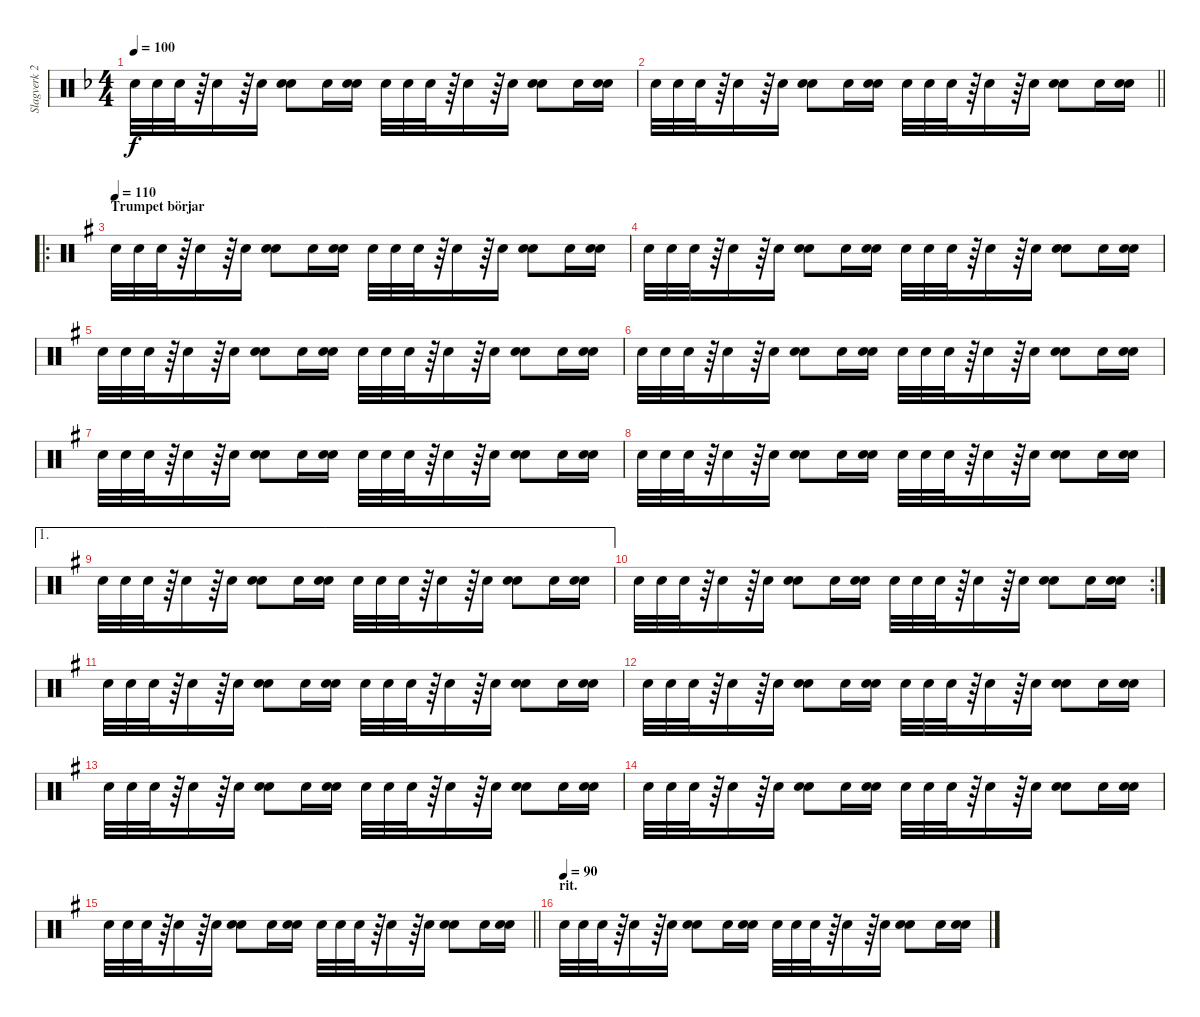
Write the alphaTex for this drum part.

\track ("Slagverk 2" "Slagverk 2") {instrument percussion}
\staff {score}
\articulation defaults
\ts (4 4)
\tempo 100
\clef neutral
\ks f "Snare (hit) 2".32{dy f} "Snare (hit) 2".32 "Snare (hit) 2".32
r.64 "Snare (hit) 2".16 r.64 "Snare (hit) 2".16 ("Snare (hit) 2" "Snare (hit) 2").8 "Snare (hit) 2".16 ("Snare (hit) 2" "Snare (hit) 2").16 "Snare (hit) 2".32 "Snare (hit) 2".32 "Snare (hit) 2".32 r.64 "Snare (hit) 2".16 r.64 "Snare (hit) 2".16 ("Snare (hit) 2" "Snare (hit) 2").8 "Snare (hit) 2".16 ("Snare (hit) 2" "Snare (hit) 2").16 |
\barLineRight lightlight "Snare (hit) 2".32 "Snare (hit) 2".32 "Snare (hit) 2".32
r.64 "Snare (hit) 2".16 r.64 "Snare (hit) 2".16 ("Snare (hit) 2" "Snare (hit) 2").8 "Snare (hit) 2".16 ("Snare (hit) 2" "Snare (hit) 2").16 "Snare (hit) 2".32 "Snare (hit) 2".32 "Snare (hit) 2".32 r.64 "Snare (hit) 2".16 r.64 "Snare (hit) 2".16 ("Snare (hit) 2" "Snare (hit) 2").8 "Snare (hit) 2".16 ("Snare (hit) 2" "Snare (hit) 2").16 |
\ro
\section ("" "Trumpet börjar")
\tempo 110
\ks g "Snare (hit) 2".32 "Snare (hit) 2".32 "Snare (hit) 2".32
r.64 "Snare (hit) 2".16 r.64 "Snare (hit) 2".16 ("Snare (hit) 2" "Snare (hit) 2").8 "Snare (hit) 2".16 ("Snare (hit) 2" "Snare (hit) 2").16 "Snare (hit) 2".32 "Snare (hit) 2".32 "Snare (hit) 2".32 r.64 "Snare (hit) 2".16 r.64 "Snare (hit) 2".16 ("Snare (hit) 2" "Snare (hit) 2").8 "Snare (hit) 2".16 ("Snare (hit) 2" "Snare (hit) 2").16 |
"Snare (hit) 2".32 "Snare (hit) 2".32 "Snare (hit) 2".32 r.64 "Snare (hit) 2".16 r.64 "Snare (hit) 2".16 ("Snare (hit) 2" "Snare (hit) 2").8 "Snare (hit) 2".16 ("Snare (hit) 2" "Snare (hit) 2").16 "Snare (hit) 2".32 "Snare (hit) 2".32 "Snare (hit) 2".32 r.64 "Snare (hit) 2".16 r.64 "Snare (hit) 2".16 ("Snare (hit) 2" "Snare (hit) 2").8 "Snare (hit) 2".16 ("Snare (hit) 2" "Snare (hit) 2").16 |
"Snare (hit) 2".32 "Snare (hit) 2".32 "Snare (hit) 2".32 r.64 "Snare (hit) 2".16 r.64 "Snare (hit) 2".16 ("Snare (hit) 2" "Snare (hit) 2").8 "Snare (hit) 2".16 ("Snare (hit) 2" "Snare (hit) 2").16 "Snare (hit) 2".32 "Snare (hit) 2".32 "Snare (hit) 2".32 r.64 "Snare (hit) 2".16 r.64 "Snare (hit) 2".16 ("Snare (hit) 2" "Snare (hit) 2").8 "Snare (hit) 2".16 ("Snare (hit) 2" "Snare (hit) 2").16 |
"Snare (hit) 2".32 "Snare (hit) 2".32 "Snare (hit) 2".32 r.64 "Snare (hit) 2".16 r.64 "Snare (hit) 2".16 ("Snare (hit) 2" "Snare (hit) 2").8 "Snare (hit) 2".16 ("Snare (hit) 2" "Snare (hit) 2").16 "Snare (hit) 2".32 "Snare (hit) 2".32 "Snare (hit) 2".32 r.64 "Snare (hit) 2".16 r.64 "Snare (hit) 2".16 ("Snare (hit) 2" "Snare (hit) 2").8 "Snare (hit) 2".16 ("Snare (hit) 2" "Snare (hit) 2").16 |
"Snare (hit) 2".32 "Snare (hit) 2".32 "Snare (hit) 2".32 r.64 "Snare (hit) 2".16 r.64 "Snare (hit) 2".16 ("Snare (hit) 2" "Snare (hit) 2").8 "Snare (hit) 2".16 ("Snare (hit) 2" "Snare (hit) 2").16 "Snare (hit) 2".32 "Snare (hit) 2".32 "Snare (hit) 2".32 r.64 "Snare (hit) 2".16 r.64 "Snare (hit) 2".16 ("Snare (hit) 2" "Snare (hit) 2").8 "Snare (hit) 2".16 ("Snare (hit) 2" "Snare (hit) 2").16 |
"Snare (hit) 2".32 "Snare (hit) 2".32 "Snare (hit) 2".32 r.64 "Snare (hit) 2".16 r.64 "Snare (hit) 2".16 ("Snare (hit) 2" "Snare (hit) 2").8 "Snare (hit) 2".16 ("Snare (hit) 2" "Snare (hit) 2").16 "Snare (hit) 2".32 "Snare (hit) 2".32 "Snare (hit) 2".32 r.64 "Snare (hit) 2".16 r.64 "Snare (hit) 2".16 ("Snare (hit) 2" "Snare (hit) 2").8 "Snare (hit) 2".16 ("Snare (hit) 2" "Snare (hit) 2").16 |
\ae 1 "Snare (hit) 2".32 "Snare (hit) 2".32 "Snare (hit) 2".32
r.64 "Snare (hit) 2".16 r.64 "Snare (hit) 2".16 ("Snare (hit) 2" "Snare (hit) 2").8 "Snare (hit) 2".16 ("Snare (hit) 2" "Snare (hit) 2").16 "Snare (hit) 2".32 "Snare (hit) 2".32 "Snare (hit) 2".32 r.64 "Snare (hit) 2".16 r.64 "Snare (hit) 2".16 ("Snare (hit) 2" "Snare (hit) 2").8 "Snare (hit) 2".16 ("Snare (hit) 2" "Snare (hit) 2").16 |
\rc 2 "Snare (hit) 2".32 "Snare (hit) 2".32 "Snare (hit) 2".32
r.64 "Snare (hit) 2".16 r.64 "Snare (hit) 2".16 ("Snare (hit) 2" "Snare (hit) 2").8 "Snare (hit) 2".16 ("Snare (hit) 2" "Snare (hit) 2").16 "Snare (hit) 2".32 "Snare (hit) 2".32 "Snare (hit) 2".32 r.64 "Snare (hit) 2".16 r.64 "Snare (hit) 2".16 ("Snare (hit) 2" "Snare (hit) 2").8 "Snare (hit) 2".16 ("Snare (hit) 2" "Snare (hit) 2").16 |
"Snare (hit) 2".32 "Snare (hit) 2".32 "Snare (hit) 2".32 r.64 "Snare (hit) 2".16 r.64 "Snare (hit) 2".16 ("Snare (hit) 2" "Snare (hit) 2").8 "Snare (hit) 2".16 ("Snare (hit) 2" "Snare (hit) 2").16 "Snare (hit) 2".32 "Snare (hit) 2".32 "Snare (hit) 2".32 r.64 "Snare (hit) 2".16 r.64 "Snare (hit) 2".16 ("Snare (hit) 2" "Snare (hit) 2").8 "Snare (hit) 2".16 ("Snare (hit) 2" "Snare (hit) 2").16 |
"Snare (hit) 2".32 "Snare (hit) 2".32 "Snare (hit) 2".32 r.64 "Snare (hit) 2".16 r.64 "Snare (hit) 2".16 ("Snare (hit) 2" "Snare (hit) 2").8 "Snare (hit) 2".16 ("Snare (hit) 2" "Snare (hit) 2").16 "Snare (hit) 2".32 "Snare (hit) 2".32 "Snare (hit) 2".32 r.64 "Snare (hit) 2".16 r.64 "Snare (hit) 2".16 ("Snare (hit) 2" "Snare (hit) 2").8 "Snare (hit) 2".16 ("Snare (hit) 2" "Snare (hit) 2").16 |
"Snare (hit) 2".32 "Snare (hit) 2".32 "Snare (hit) 2".32 r.64 "Snare (hit) 2".16 r.64 "Snare (hit) 2".16 ("Snare (hit) 2" "Snare (hit) 2").8 "Snare (hit) 2".16 ("Snare (hit) 2" "Snare (hit) 2").16 "Snare (hit) 2".32 "Snare (hit) 2".32 "Snare (hit) 2".32 r.64 "Snare (hit) 2".16 r.64 "Snare (hit) 2".16 ("Snare (hit) 2" "Snare (hit) 2").8 "Snare (hit) 2".16 ("Snare (hit) 2" "Snare (hit) 2").16 |
"Snare (hit) 2".32 "Snare (hit) 2".32 "Snare (hit) 2".32 r.64 "Snare (hit) 2".16 r.64 "Snare (hit) 2".16 ("Snare (hit) 2" "Snare (hit) 2").8 "Snare (hit) 2".16 ("Snare (hit) 2" "Snare (hit) 2").16 "Snare (hit) 2".32 "Snare (hit) 2".32 "Snare (hit) 2".32 r.64 "Snare (hit) 2".16 r.64 "Snare (hit) 2".16 ("Snare (hit) 2" "Snare (hit) 2").8 "Snare (hit) 2".16 ("Snare (hit) 2" "Snare (hit) 2").16 |
\barLineRight lightlight "Snare (hit) 2".32 "Snare (hit) 2".32 "Snare (hit) 2".32
r.64 "Snare (hit) 2".16 r.64 "Snare (hit) 2".16 ("Snare (hit) 2" "Snare (hit) 2").8 "Snare (hit) 2".16 ("Snare (hit) 2" "Snare (hit) 2").16 "Snare (hit) 2".32 "Snare (hit) 2".32 "Snare (hit) 2".32 r.64 "Snare (hit) 2".16 r.64 "Snare (hit) 2".16 ("Snare (hit) 2" "Snare (hit) 2").8 "Snare (hit) 2".16 ("Snare (hit) 2" "Snare (hit) 2").16 |
\section ("" "rit.")
\tempo (90)
"Snare (hit) 2".32 "Snare (hit) 2".32 "Snare (hit) 2".32 r.64 "Snare (hit) 2".16 r.64 "Snare (hit) 2".16 ("Snare (hit) 2" "Snare (hit) 2").8 "Snare (hit) 2".16 ("Snare (hit) 2" "Snare (hit) 2").16 "Snare (hit) 2".32 "Snare (hit) 2".32 "Snare (hit) 2".32 r.64 "Snare (hit) 2".16 r.64 "Snare (hit) 2".16 ("Snare (hit) 2" "Snare (hit) 2").8 "Snare (hit) 2".16 ("Snare (hit) 2" "Snare (hit) 2").16
